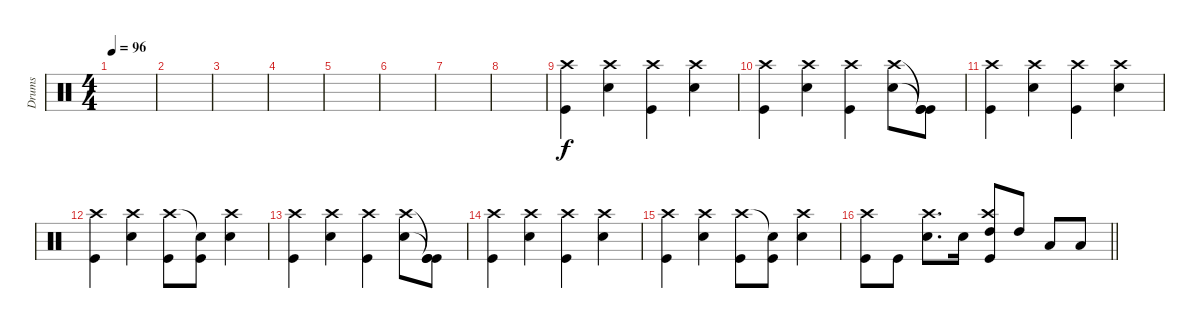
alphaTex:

\track ("Drums" "Drums") {instrument percussion}
\staff {score}
\articulation defaults
\ts (4 4)
\tempo 96
\clef neutral
\ks c
|
|
|
|
|
|
|
|
("Kick (hit)" "Crash high (hit)").4 ("Snare (hit) 2" "Crash high (hit)").4 ("Kick (hit)" "Crash high (hit)").4 ("Snare (hit) 2" "Crash high (hit)").4 |
("Kick (hit)" "Crash high (hit)").4 ("Snare (hit) 2" "Crash high (hit)").4 ("Kick (hit)" "Crash high (hit)").4 ("Snare (hit) 2" "Crash high (hit)").8 ("Kick (hit)"{t} "Kick (hit)"{t} "Kick (hit)").8 |
("Kick (hit)" "Crash high (hit)").4 ("Snare (hit) 2" "Crash high (hit)").4 ("Kick (hit)" "Crash high (hit)").4 ("Snare (hit) 2" "Crash high (hit)").4 |
("Kick (hit)" "Crash high (hit)").4 ("Snare (hit) 2" "Crash high (hit)").4 ("Kick (hit)" "Crash high (hit)").8 ("Kick (hit)" "Snare (hit)"{t}).8 ("Snare (hit) 2" "Crash high (hit)").4 |
("Kick (hit)" "Crash high (hit)").4 ("Snare (hit) 2" "Crash high (hit)").4 ("Kick (hit)" "Crash high (hit)").4 ("Snare (hit) 2" "Crash high (hit)").8 ("Kick (hit)"{t} "Kick (hit)"{t} "Kick (hit)").8 |
("Kick (hit)" "Crash high (hit)").4 ("Snare (hit) 2" "Crash high (hit)").4 ("Kick (hit)" "Crash high (hit)").4 ("Snare (hit) 2" "Crash high (hit)").4 |
("Kick (hit)" "Crash high (hit)").4 ("Snare (hit) 2" "Crash high (hit)").4 ("Kick (hit)" "Crash high (hit)").8 ("Kick (hit)" "Snare (hit)"{t}).8 ("Snare (hit) 2" "Crash high (hit)").4 |
\barLineRight lightlight
("Kick (hit)" "Crash high (hit)").8 "Kick (hit)".8 ("Snare (hit) 2" "Crash high (hit)").8{d} "Snare (hit) 2".16 ("Kick (hit)" "High Tom (hit)" "Crash high (hit)").8 "High Tom (hit)".8 "Low Tom (hit)".8 "Low Tom (hit)".8
